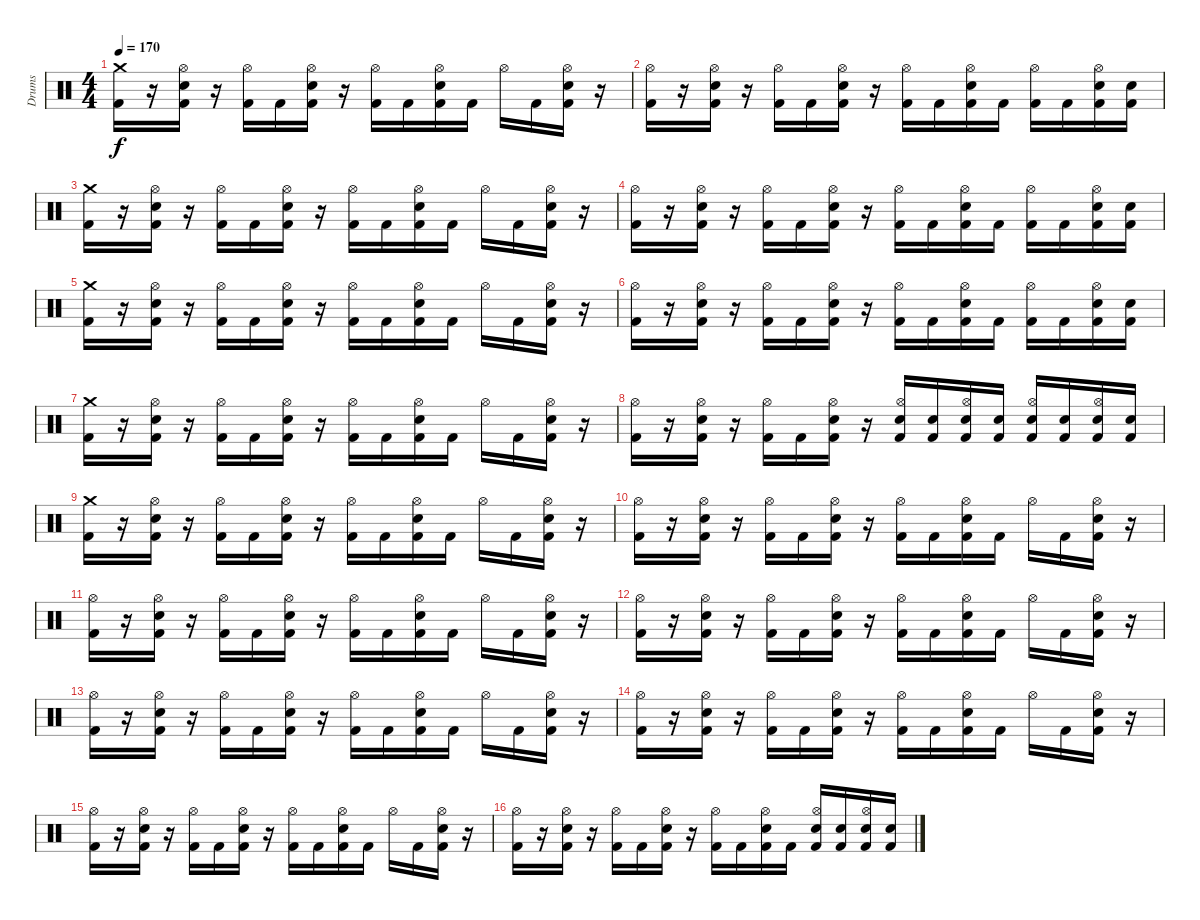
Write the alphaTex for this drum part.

\track ("Drums" "Drums") {instrument percussion}
\staff {score}
\articulation defaults
\ts (4 4)
\section ("" "")
\tempo 170
\clef neutral
\ks c
("Crash medium (hit)" "Kick (hit) 2").16{dy f} r.16 ("Hi-Hat (open)" "Electric Snare (hit)" "Kick (hit) 2").16 r.16 ("Hi-Hat (open)" "Kick (hit) 2").16 "Kick (hit) 2".16 ("Hi-Hat (open)" "Electric Snare (hit)" "Kick (hit) 2").16 r.16 ("Hi-Hat (open)" "Kick (hit) 2").16 "Kick (hit) 2".16 ("Hi-Hat (open)" "Electric Snare (hit)" "Kick (hit) 2").16 "Kick (hit) 2".16 "Hi-Hat (open)".16 "Kick (hit) 2".16 ("Hi-Hat (open)" "Electric Snare (hit)" "Kick (hit) 2").16 r.16 |
("Hi-Hat (open)" "Kick (hit) 2").16 r.16 ("Hi-Hat (open)" "Electric Snare (hit)" "Kick (hit) 2").16 r.16 ("Hi-Hat (open)" "Kick (hit) 2").16 "Kick (hit) 2".16 ("Hi-Hat (open)" "Electric Snare (hit)" "Kick (hit) 2").16 r.16 ("Hi-Hat (open)" "Kick (hit) 2").16 "Kick (hit) 2".16 ("Hi-Hat (open)" "Electric Snare (hit)" "Kick (hit) 2").16 "Kick (hit) 2".16 ("Hi-Hat (open)" "Kick (hit) 2").16 "Kick (hit) 2".16 ("Hi-Hat (open)" "Electric Snare (hit)" "Kick (hit) 2").16 ("Electric Snare (hit)" "Kick (hit) 2").16 |
("Crash medium (hit)" "Kick (hit) 2").16 r.16 ("Hi-Hat (open)" "Electric Snare (hit)" "Kick (hit) 2").16 r.16 ("Hi-Hat (open)" "Kick (hit) 2").16 "Kick (hit) 2".16 ("Hi-Hat (open)" "Electric Snare (hit)" "Kick (hit) 2").16 r.16 ("Hi-Hat (open)" "Kick (hit) 2").16 "Kick (hit) 2".16 ("Hi-Hat (open)" "Electric Snare (hit)" "Kick (hit) 2").16 "Kick (hit) 2".16 "Hi-Hat (open)".16 "Kick (hit) 2".16 ("Hi-Hat (open)" "Electric Snare (hit)" "Kick (hit) 2").16 r.16 |
("Hi-Hat (open)" "Kick (hit) 2").16 r.16 ("Hi-Hat (open)" "Electric Snare (hit)" "Kick (hit) 2").16 r.16 ("Hi-Hat (open)" "Kick (hit) 2").16 "Kick (hit) 2".16 ("Hi-Hat (open)" "Electric Snare (hit)" "Kick (hit) 2").16 r.16 ("Hi-Hat (open)" "Kick (hit) 2").16 "Kick (hit) 2".16 ("Hi-Hat (open)" "Electric Snare (hit)" "Kick (hit) 2").16 "Kick (hit) 2".16 ("Hi-Hat (open)" "Kick (hit) 2").16 "Kick (hit) 2".16 ("Hi-Hat (open)" "Electric Snare (hit)" "Kick (hit) 2").16 ("Electric Snare (hit)" "Kick (hit) 2").16 |
("Crash medium (hit)" "Kick (hit) 2").16 r.16 ("Hi-Hat (open)" "Electric Snare (hit)" "Kick (hit) 2").16 r.16 ("Hi-Hat (open)" "Kick (hit) 2").16 "Kick (hit) 2".16 ("Hi-Hat (open)" "Electric Snare (hit)" "Kick (hit) 2").16 r.16 ("Hi-Hat (open)" "Kick (hit) 2").16 "Kick (hit) 2".16 ("Hi-Hat (open)" "Electric Snare (hit)" "Kick (hit) 2").16 "Kick (hit) 2".16 "Hi-Hat (open)".16 "Kick (hit) 2".16 ("Hi-Hat (open)" "Electric Snare (hit)" "Kick (hit) 2").16 r.16 |
("Hi-Hat (open)" "Kick (hit) 2").16 r.16 ("Hi-Hat (open)" "Electric Snare (hit)" "Kick (hit) 2").16 r.16 ("Hi-Hat (open)" "Kick (hit) 2").16 "Kick (hit) 2".16 ("Hi-Hat (open)" "Electric Snare (hit)" "Kick (hit) 2").16 r.16 ("Hi-Hat (open)" "Kick (hit) 2").16 "Kick (hit) 2".16 ("Hi-Hat (open)" "Electric Snare (hit)" "Kick (hit) 2").16 "Kick (hit) 2".16 ("Hi-Hat (open)" "Kick (hit) 2").16 "Kick (hit) 2".16 ("Hi-Hat (open)" "Electric Snare (hit)" "Kick (hit) 2").16 ("Electric Snare (hit)" "Kick (hit) 2").16 |
("Crash medium (hit)" "Kick (hit) 2").16 r.16 ("Hi-Hat (open)" "Electric Snare (hit)" "Kick (hit) 2").16 r.16 ("Hi-Hat (open)" "Kick (hit) 2").16 "Kick (hit) 2".16 ("Hi-Hat (open)" "Electric Snare (hit)" "Kick (hit) 2").16 r.16 ("Hi-Hat (open)" "Kick (hit) 2").16 "Kick (hit) 2".16 ("Hi-Hat (open)" "Electric Snare (hit)" "Kick (hit) 2").16 "Kick (hit) 2".16 "Hi-Hat (open)".16 "Kick (hit) 2".16 ("Hi-Hat (open)" "Electric Snare (hit)" "Kick (hit) 2").16 r.16 |
("Hi-Hat (open)" "Kick (hit) 2").16 r.16 ("Hi-Hat (open)" "Electric Snare (hit)" "Kick (hit) 2").16 r.16 ("Hi-Hat (open)" "Kick (hit) 2").16 "Kick (hit) 2".16 ("Hi-Hat (open)" "Electric Snare (hit)" "Kick (hit) 2").16 r.16 ("Hi-Hat (open)" "Electric Snare (hit)" "Kick (hit) 2").16 ("Electric Snare (hit)" "Kick (hit) 2").16 ("Hi-Hat (open)" "Electric Snare (hit)" "Kick (hit) 2").16 ("Electric Snare (hit)" "Kick (hit) 2").16 ("Hi-Hat (open)" "Electric Snare (hit)" "Kick (hit) 2").16 ("Electric Snare (hit)" "Kick (hit) 2").16 ("Hi-Hat (open)" "Electric Snare (hit)" "Kick (hit) 2").16 ("Electric Snare (hit)" "Kick (hit) 2").16 |
\section ("" "")
("Crash medium (hit)" "Kick (hit) 2").16 r.16 ("Hi-Hat (open)" "Electric Snare (hit)" "Kick (hit) 2").16 r.16 ("Hi-Hat (open)" "Kick (hit) 2").16 "Kick (hit) 2".16 ("Hi-Hat (open)" "Electric Snare (hit)" "Kick (hit) 2").16 r.16 ("Hi-Hat (open)" "Kick (hit) 2").16 "Kick (hit) 2".16 ("Hi-Hat (open)" "Electric Snare (hit)" "Kick (hit) 2").16 "Kick (hit) 2".16 "Hi-Hat (open)".16 "Kick (hit) 2".16 ("Hi-Hat (open)" "Electric Snare (hit)" "Kick (hit) 2").16 r.16 |
("Hi-Hat (open)" "Kick (hit) 2").16 r.16 ("Hi-Hat (open)" "Electric Snare (hit)" "Kick (hit) 2").16 r.16 ("Hi-Hat (open)" "Kick (hit) 2").16 "Kick (hit) 2".16 ("Hi-Hat (open)" "Electric Snare (hit)" "Kick (hit) 2").16 r.16 ("Hi-Hat (open)" "Kick (hit) 2").16 "Kick (hit) 2".16 ("Hi-Hat (open)" "Electric Snare (hit)" "Kick (hit) 2").16 "Kick (hit) 2".16 "Hi-Hat (open)".16 "Kick (hit) 2".16 ("Hi-Hat (open)" "Electric Snare (hit)" "Kick (hit) 2").16 r.16 |
("Hi-Hat (open)" "Kick (hit) 2").16 r.16 ("Hi-Hat (open)" "Electric Snare (hit)" "Kick (hit) 2").16 r.16 ("Hi-Hat (open)" "Kick (hit) 2").16 "Kick (hit) 2".16 ("Hi-Hat (open)" "Electric Snare (hit)" "Kick (hit) 2").16 r.16 ("Hi-Hat (open)" "Kick (hit) 2").16 "Kick (hit) 2".16 ("Hi-Hat (open)" "Electric Snare (hit)" "Kick (hit) 2").16 "Kick (hit) 2".16 "Hi-Hat (open)".16 "Kick (hit) 2".16 ("Hi-Hat (open)" "Electric Snare (hit)" "Kick (hit) 2").16 r.16 |
("Hi-Hat (open)" "Kick (hit) 2").16 r.16 ("Hi-Hat (open)" "Electric Snare (hit)" "Kick (hit) 2").16 r.16 ("Hi-Hat (open)" "Kick (hit) 2").16 "Kick (hit) 2".16 ("Hi-Hat (open)" "Electric Snare (hit)" "Kick (hit) 2").16 r.16 ("Hi-Hat (open)" "Kick (hit) 2").16 "Kick (hit) 2".16 ("Hi-Hat (open)" "Electric Snare (hit)" "Kick (hit) 2").16 "Kick (hit) 2".16 "Hi-Hat (open)".16 "Kick (hit) 2".16 ("Hi-Hat (open)" "Electric Snare (hit)" "Kick (hit) 2").16 r.16 |
("Hi-Hat (open)" "Kick (hit) 2").16 r.16 ("Hi-Hat (open)" "Electric Snare (hit)" "Kick (hit) 2").16 r.16 ("Hi-Hat (open)" "Kick (hit) 2").16 "Kick (hit) 2".16 ("Hi-Hat (open)" "Electric Snare (hit)" "Kick (hit) 2").16 r.16 ("Hi-Hat (open)" "Kick (hit) 2").16 "Kick (hit) 2".16 ("Hi-Hat (open)" "Electric Snare (hit)" "Kick (hit) 2").16 "Kick (hit) 2".16 "Hi-Hat (open)".16 "Kick (hit) 2".16 ("Hi-Hat (open)" "Electric Snare (hit)" "Kick (hit) 2").16 r.16 |
("Hi-Hat (open)" "Kick (hit) 2").16 r.16 ("Hi-Hat (open)" "Electric Snare (hit)" "Kick (hit) 2").16 r.16 ("Hi-Hat (open)" "Kick (hit) 2").16 "Kick (hit) 2".16 ("Hi-Hat (open)" "Electric Snare (hit)" "Kick (hit) 2").16 r.16 ("Hi-Hat (open)" "Kick (hit) 2").16 "Kick (hit) 2".16 ("Hi-Hat (open)" "Electric Snare (hit)" "Kick (hit) 2").16 "Kick (hit) 2".16 "Hi-Hat (open)".16 "Kick (hit) 2".16 ("Hi-Hat (open)" "Electric Snare (hit)" "Kick (hit) 2").16 r.16 |
("Hi-Hat (open)" "Kick (hit) 2").16 r.16 ("Hi-Hat (open)" "Electric Snare (hit)" "Kick (hit) 2").16 r.16 ("Hi-Hat (open)" "Kick (hit) 2").16 "Kick (hit) 2".16 ("Hi-Hat (open)" "Electric Snare (hit)" "Kick (hit) 2").16 r.16 ("Hi-Hat (open)" "Kick (hit) 2").16 "Kick (hit) 2".16 ("Hi-Hat (open)" "Electric Snare (hit)" "Kick (hit) 2").16 "Kick (hit) 2".16 "Hi-Hat (open)".16 "Kick (hit) 2".16 ("Hi-Hat (open)" "Electric Snare (hit)" "Kick (hit) 2").16 r.16 |
("Hi-Hat (open)" "Kick (hit) 2").16 r.16 ("Hi-Hat (open)" "Electric Snare (hit)" "Kick (hit) 2").16 r.16 ("Hi-Hat (open)" "Kick (hit) 2").16 "Kick (hit) 2".16 ("Hi-Hat (open)" "Electric Snare (hit)" "Kick (hit) 2").16 r.16 ("Hi-Hat (open)" "Kick (hit) 2").16 "Kick (hit) 2".16 ("Hi-Hat (open)" "Electric Snare (hit)" "Kick (hit) 2").16 "Kick (hit) 2".16 ("Hi-Hat (open)" "Electric Snare (hit)" "Kick (hit) 2").16 ("Electric Snare (hit)" "Kick (hit) 2").16 ("Hi-Hat (open)" "Electric Snare (hit)" "Kick (hit) 2").16 ("Electric Snare (hit)" "Kick (hit) 2").16
